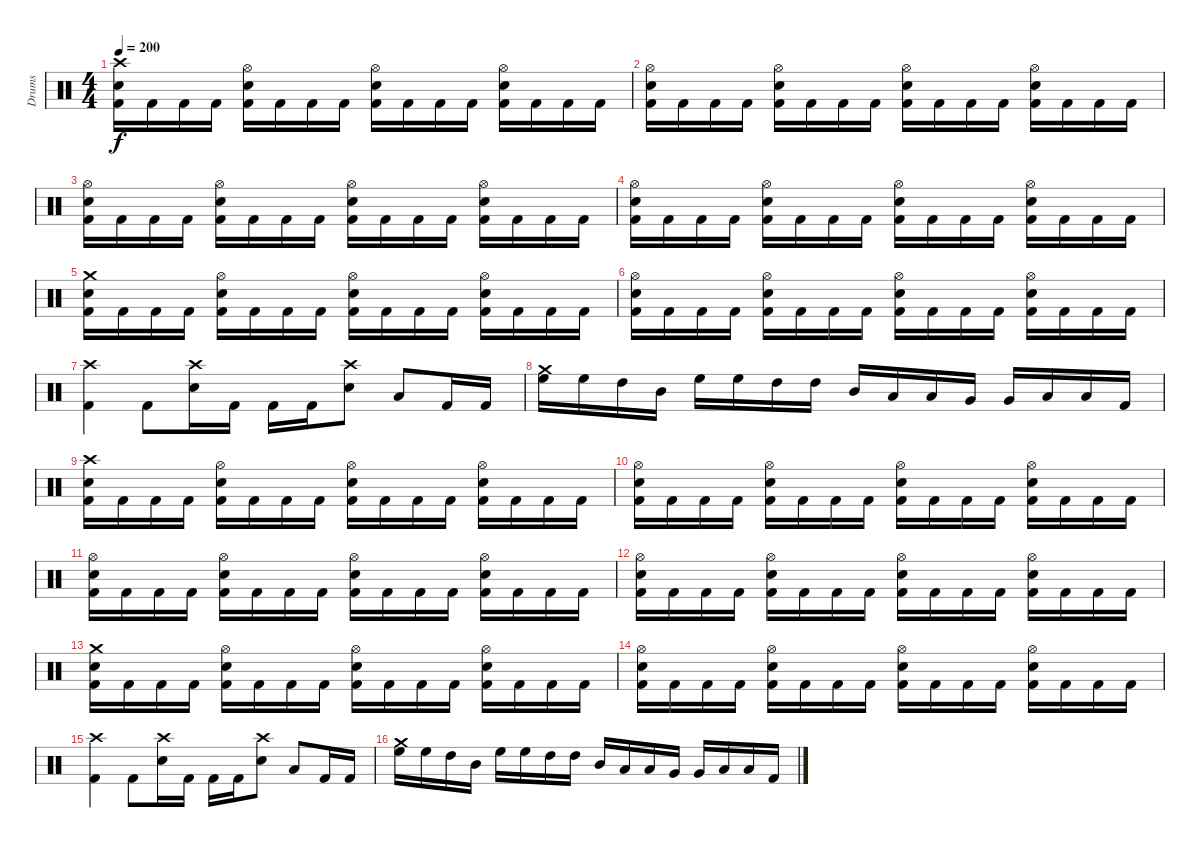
\track ("Drums" "Drums") {instrument percussion}
\staff {score}
\articulation defaults
\ts (4 4)
\tempo 200
\clef neutral
\ks c
("Crash high (hit)" "Electric Snare (hit)" "Kick (hit) 2").16{dy f} "Kick (hit) 2".16 "Kick (hit) 2".16 "Kick (hit) 2".16 ("Hi-Hat (open)" "Electric Snare (hit)" "Kick (hit) 2").16 "Kick (hit) 2".16 "Kick (hit) 2".16 "Kick (hit) 2".16 ("Hi-Hat (open)" "Electric Snare (hit)" "Kick (hit) 2").16 "Kick (hit) 2".16 "Kick (hit) 2".16 "Kick (hit) 2".16 ("Hi-Hat (open)" "Electric Snare (hit)" "Kick (hit) 2").16 "Kick (hit) 2".16 "Kick (hit) 2".16 "Kick (hit) 2".16 |
("Hi-Hat (open)" "Electric Snare (hit)" "Kick (hit) 2").16 "Kick (hit) 2".16 "Kick (hit) 2".16 "Kick (hit) 2".16 ("Hi-Hat (open)" "Electric Snare (hit)" "Kick (hit) 2").16 "Kick (hit) 2".16 "Kick (hit) 2".16 "Kick (hit) 2".16 ("Hi-Hat (open)" "Electric Snare (hit)" "Kick (hit) 2").16 "Kick (hit) 2".16 "Kick (hit) 2".16 "Kick (hit) 2".16 ("Hi-Hat (open)" "Electric Snare (hit)" "Kick (hit) 2").16 "Kick (hit) 2".16 "Kick (hit) 2".16 "Kick (hit) 2".16 |
("Hi-Hat (open)" "Electric Snare (hit)" "Kick (hit) 2").16 "Kick (hit) 2".16 "Kick (hit) 2".16 "Kick (hit) 2".16 ("Hi-Hat (open)" "Electric Snare (hit)" "Kick (hit) 2").16 "Kick (hit) 2".16 "Kick (hit) 2".16 "Kick (hit) 2".16 ("Hi-Hat (open)" "Electric Snare (hit)" "Kick (hit) 2").16 "Kick (hit) 2".16 "Kick (hit) 2".16 "Kick (hit) 2".16 ("Hi-Hat (open)" "Electric Snare (hit)" "Kick (hit) 2").16 "Kick (hit) 2".16 "Kick (hit) 2".16 "Kick (hit) 2".16 |
("Hi-Hat (open)" "Electric Snare (hit)" "Kick (hit) 2").16 "Kick (hit) 2".16 "Kick (hit) 2".16 "Kick (hit) 2".16 ("Hi-Hat (open)" "Electric Snare (hit)" "Kick (hit) 2").16 "Kick (hit) 2".16 "Kick (hit) 2".16 "Kick (hit) 2".16 ("Hi-Hat (open)" "Electric Snare (hit)" "Kick (hit) 2").16 "Kick (hit) 2".16 "Kick (hit) 2".16 "Kick (hit) 2".16 ("Hi-Hat (open)" "Electric Snare (hit)" "Kick (hit) 2").16 "Kick (hit) 2".16 "Kick (hit) 2".16 "Kick (hit) 2".16 |
("Crash medium (hit)" "Electric Snare (hit)" "Kick (hit) 2").16 "Kick (hit) 2".16 "Kick (hit) 2".16 "Kick (hit) 2".16 ("Hi-Hat (open)" "Electric Snare (hit)" "Kick (hit) 2").16 "Kick (hit) 2".16 "Kick (hit) 2".16 "Kick (hit) 2".16 ("Hi-Hat (open)" "Electric Snare (hit)" "Kick (hit) 2").16 "Kick (hit) 2".16 "Kick (hit) 2".16 "Kick (hit) 2".16 ("Hi-Hat (open)" "Electric Snare (hit)" "Kick (hit) 2").16 "Kick (hit) 2".16 "Kick (hit) 2".16 "Kick (hit) 2".16 |
("Hi-Hat (open)" "Electric Snare (hit)" "Kick (hit) 2").16 "Kick (hit) 2".16 "Kick (hit) 2".16 "Kick (hit) 2".16 ("Hi-Hat (open)" "Electric Snare (hit)" "Kick (hit) 2").16 "Kick (hit) 2".16 "Kick (hit) 2".16 "Kick (hit) 2".16 ("Hi-Hat (open)" "Electric Snare (hit)" "Kick (hit) 2").16 "Kick (hit) 2".16 "Kick (hit) 2".16 "Kick (hit) 2".16 ("Hi-Hat (open)" "Electric Snare (hit)" "Kick (hit) 2").16 "Kick (hit) 2".16 "Kick (hit) 2".16 "Kick (hit) 2".16 |
("Crash high (hit)" "Kick (hit) 2").4 "Kick (hit) 2".8 ("Crash high (hit)" "Electric Snare (hit)").16 "Kick (hit) 2".16 "Kick (hit) 2".16 "Kick (hit) 2".16 ("Crash high (hit)" "Electric Snare (hit)").8 "Low Floor Tom (hit)".8 "Kick (hit) 2".16 "Kick (hit) 2".16 |
("Crash medium (hit)" "High Floor Tom (hit)").16 "High Floor Tom (hit)".16 "High Tom (hit)".16 "Mid Tom (hit)".16 "High Floor Tom (hit)".16 "High Floor Tom (hit)".16 "High Tom (hit)".16 "High Tom (hit)".16 "Mid Tom (hit)".16 "Low Tom (hit)".16 "Low Tom (hit)".16 "Very Low Tom (hit)".16 "Very Low Tom (hit)".16 "Low Floor Tom (hit)".16 "Low Floor Tom (hit)".16 "Kick (hit) 2".16 |
("Crash high (hit)" "Electric Snare (hit)" "Kick (hit) 2").16 "Kick (hit) 2".16 "Kick (hit) 2".16 "Kick (hit) 2".16 ("Hi-Hat (open)" "Electric Snare (hit)" "Kick (hit) 2").16 "Kick (hit) 2".16 "Kick (hit) 2".16 "Kick (hit) 2".16 ("Hi-Hat (open)" "Electric Snare (hit)" "Kick (hit) 2").16 "Kick (hit) 2".16 "Kick (hit) 2".16 "Kick (hit) 2".16 ("Hi-Hat (open)" "Electric Snare (hit)" "Kick (hit) 2").16 "Kick (hit) 2".16 "Kick (hit) 2".16 "Kick (hit) 2".16 |
("Hi-Hat (open)" "Electric Snare (hit)" "Kick (hit) 2").16 "Kick (hit) 2".16 "Kick (hit) 2".16 "Kick (hit) 2".16 ("Hi-Hat (open)" "Electric Snare (hit)" "Kick (hit) 2").16 "Kick (hit) 2".16 "Kick (hit) 2".16 "Kick (hit) 2".16 ("Hi-Hat (open)" "Electric Snare (hit)" "Kick (hit) 2").16 "Kick (hit) 2".16 "Kick (hit) 2".16 "Kick (hit) 2".16 ("Hi-Hat (open)" "Electric Snare (hit)" "Kick (hit) 2").16 "Kick (hit) 2".16 "Kick (hit) 2".16 "Kick (hit) 2".16 |
("Hi-Hat (open)" "Electric Snare (hit)" "Kick (hit) 2").16 "Kick (hit) 2".16 "Kick (hit) 2".16 "Kick (hit) 2".16 ("Hi-Hat (open)" "Electric Snare (hit)" "Kick (hit) 2").16 "Kick (hit) 2".16 "Kick (hit) 2".16 "Kick (hit) 2".16 ("Hi-Hat (open)" "Electric Snare (hit)" "Kick (hit) 2").16 "Kick (hit) 2".16 "Kick (hit) 2".16 "Kick (hit) 2".16 ("Hi-Hat (open)" "Electric Snare (hit)" "Kick (hit) 2").16 "Kick (hit) 2".16 "Kick (hit) 2".16 "Kick (hit) 2".16 |
("Hi-Hat (open)" "Electric Snare (hit)" "Kick (hit) 2").16 "Kick (hit) 2".16 "Kick (hit) 2".16 "Kick (hit) 2".16 ("Hi-Hat (open)" "Electric Snare (hit)" "Kick (hit) 2").16 "Kick (hit) 2".16 "Kick (hit) 2".16 "Kick (hit) 2".16 ("Hi-Hat (open)" "Electric Snare (hit)" "Kick (hit) 2").16 "Kick (hit) 2".16 "Kick (hit) 2".16 "Kick (hit) 2".16 ("Hi-Hat (open)" "Electric Snare (hit)" "Kick (hit) 2").16 "Kick (hit) 2".16 "Kick (hit) 2".16 "Kick (hit) 2".16 |
("Crash medium (hit)" "Electric Snare (hit)" "Kick (hit) 2").16 "Kick (hit) 2".16 "Kick (hit) 2".16 "Kick (hit) 2".16 ("Hi-Hat (open)" "Electric Snare (hit)" "Kick (hit) 2").16 "Kick (hit) 2".16 "Kick (hit) 2".16 "Kick (hit) 2".16 ("Hi-Hat (open)" "Electric Snare (hit)" "Kick (hit) 2").16 "Kick (hit) 2".16 "Kick (hit) 2".16 "Kick (hit) 2".16 ("Hi-Hat (open)" "Electric Snare (hit)" "Kick (hit) 2").16 "Kick (hit) 2".16 "Kick (hit) 2".16 "Kick (hit) 2".16 |
("Hi-Hat (open)" "Electric Snare (hit)" "Kick (hit) 2").16 "Kick (hit) 2".16 "Kick (hit) 2".16 "Kick (hit) 2".16 ("Hi-Hat (open)" "Electric Snare (hit)" "Kick (hit) 2").16 "Kick (hit) 2".16 "Kick (hit) 2".16 "Kick (hit) 2".16 ("Hi-Hat (open)" "Electric Snare (hit)" "Kick (hit) 2").16 "Kick (hit) 2".16 "Kick (hit) 2".16 "Kick (hit) 2".16 ("Hi-Hat (open)" "Electric Snare (hit)" "Kick (hit) 2").16 "Kick (hit) 2".16 "Kick (hit) 2".16 "Kick (hit) 2".16 |
("Crash high (hit)" "Kick (hit) 2").4 "Kick (hit) 2".8 ("Crash high (hit)" "Electric Snare (hit)").16 "Kick (hit) 2".16 "Kick (hit) 2".16 "Kick (hit) 2".16 ("Crash high (hit)" "Electric Snare (hit)").8 "Low Floor Tom (hit)".8 "Kick (hit) 2".16 "Kick (hit) 2".16 |
("Crash medium (hit)" "High Floor Tom (hit)").16 "High Floor Tom (hit)".16 "High Tom (hit)".16 "Mid Tom (hit)".16 "High Floor Tom (hit)".16 "High Floor Tom (hit)".16 "High Tom (hit)".16 "High Tom (hit)".16 "Mid Tom (hit)".16 "Low Tom (hit)".16 "Low Tom (hit)".16 "Very Low Tom (hit)".16 "Very Low Tom (hit)".16 "Low Floor Tom (hit)".16 "Low Floor Tom (hit)".16 "Kick (hit) 2".16
